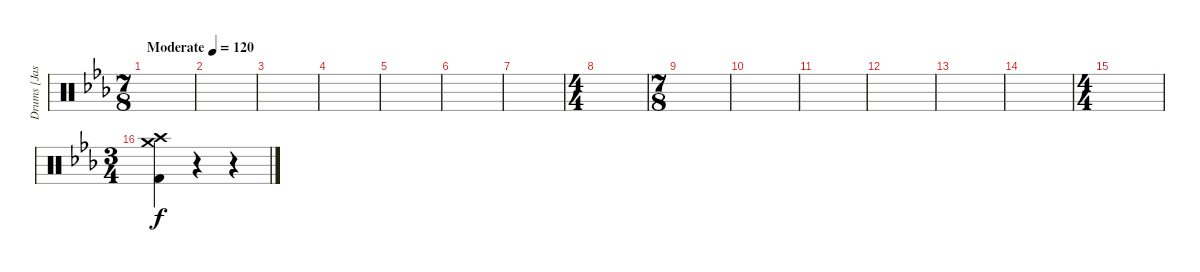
\track ("Drums [Jason Rullo]" "Drums [Jas") {instrument percussion}
\staff {score}
\articulation defaults
\ts (7 8)
\tempo (120 "Moderate")
\clef neutral
\ks eb
|
|
|
|
|
|
|
\ts (4 4)
|
\ts (7 8)
|
|
|
|
|
|
\ts (4 4)
|
\ts (3 4)
("Crash medium (hit)" "Crash high (hit)" "Kick (hit) 2").4 r.4 r.4
